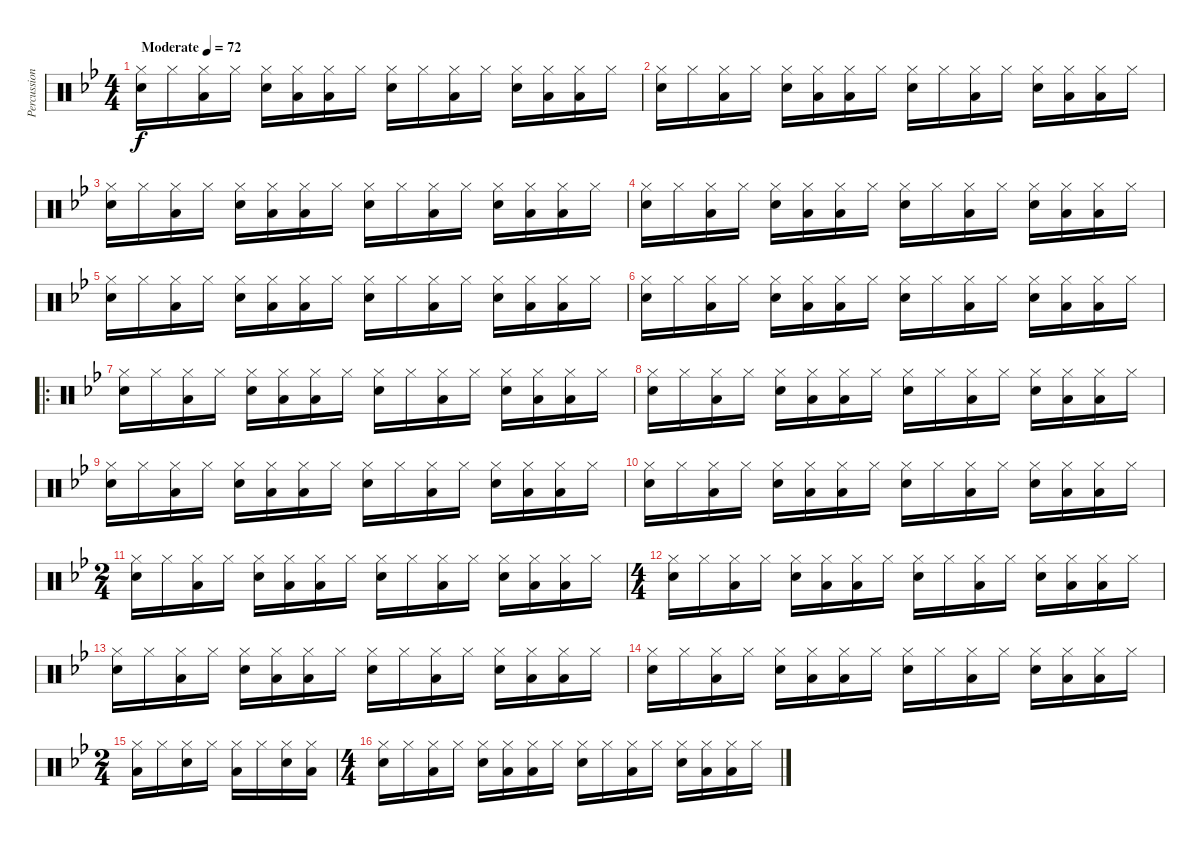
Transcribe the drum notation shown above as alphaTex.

\track ("Percussions" "Percussion") {instrument percussion}
\staff {score}
\articulation defaults
\ts (4 4)
\tempo (72 "Moderate")
\clef neutral
\ks bb
("Hi-Hat (closed)" "Snare (hit) 2").16{dy f} "Hi-Hat (closed)".16 ("Hi-Hat (closed)" "Low Tom (hit)").16 "Hi-Hat (closed)".16 ("Hi-Hat (closed)" "Snare (hit) 2").16 ("Hi-Hat (closed)" "Low Tom (hit)").16 ("Hi-Hat (closed)" "Low Tom (hit)").16 "Hi-Hat (closed)".16 ("Hi-Hat (closed)" "Snare (hit) 2").16 "Hi-Hat (closed)".16 ("Hi-Hat (closed)" "Low Tom (hit)").16 "Hi-Hat (closed)".16 ("Hi-Hat (closed)" "Snare (hit) 2").16 ("Hi-Hat (closed)" "Low Tom (hit)").16 ("Hi-Hat (closed)" "Low Tom (hit)").16 "Hi-Hat (closed)".16 |
("Hi-Hat (closed)" "Snare (hit) 2").16 "Hi-Hat (closed)".16 ("Hi-Hat (closed)" "Low Tom (hit)").16 "Hi-Hat (closed)".16 ("Hi-Hat (closed)" "Snare (hit) 2").16 ("Hi-Hat (closed)" "Low Tom (hit)").16 ("Hi-Hat (closed)" "Low Tom (hit)").16 "Hi-Hat (closed)".16 ("Hi-Hat (closed)" "Snare (hit) 2").16 "Hi-Hat (closed)".16 ("Hi-Hat (closed)" "Low Tom (hit)").16 "Hi-Hat (closed)".16 ("Hi-Hat (closed)" "Snare (hit) 2").16 ("Hi-Hat (closed)" "Low Tom (hit)").16 ("Hi-Hat (closed)" "Low Tom (hit)").16 "Hi-Hat (closed)".16 |
("Hi-Hat (closed)" "Snare (hit) 2").16 "Hi-Hat (closed)".16 ("Hi-Hat (closed)" "Low Tom (hit)").16 "Hi-Hat (closed)".16 ("Hi-Hat (closed)" "Snare (hit) 2").16 ("Hi-Hat (closed)" "Low Tom (hit)").16 ("Hi-Hat (closed)" "Low Tom (hit)").16 "Hi-Hat (closed)".16 ("Hi-Hat (closed)" "Snare (hit) 2").16 "Hi-Hat (closed)".16 ("Hi-Hat (closed)" "Low Tom (hit)").16 "Hi-Hat (closed)".16 ("Hi-Hat (closed)" "Snare (hit) 2").16 ("Hi-Hat (closed)" "Low Tom (hit)").16 ("Hi-Hat (closed)" "Low Tom (hit)").16 "Hi-Hat (closed)".16 |
("Hi-Hat (closed)" "Snare (hit) 2").16 "Hi-Hat (closed)".16 ("Hi-Hat (closed)" "Low Tom (hit)").16 "Hi-Hat (closed)".16 ("Hi-Hat (closed)" "Snare (hit) 2").16 ("Hi-Hat (closed)" "Low Tom (hit)").16 ("Hi-Hat (closed)" "Low Tom (hit)").16 "Hi-Hat (closed)".16 ("Hi-Hat (closed)" "Snare (hit) 2").16 "Hi-Hat (closed)".16 ("Hi-Hat (closed)" "Low Tom (hit)").16 "Hi-Hat (closed)".16 ("Hi-Hat (closed)" "Snare (hit) 2").16 ("Hi-Hat (closed)" "Low Tom (hit)").16 ("Hi-Hat (closed)" "Low Tom (hit)").16 "Hi-Hat (closed)".16 |
("Hi-Hat (closed)" "Snare (hit) 2").16 "Hi-Hat (closed)".16 ("Hi-Hat (closed)" "Low Tom (hit)").16 "Hi-Hat (closed)".16 ("Hi-Hat (closed)" "Snare (hit) 2").16 ("Hi-Hat (closed)" "Low Tom (hit)").16 ("Hi-Hat (closed)" "Low Tom (hit)").16 "Hi-Hat (closed)".16 ("Hi-Hat (closed)" "Snare (hit) 2").16 "Hi-Hat (closed)".16 ("Hi-Hat (closed)" "Low Tom (hit)").16 "Hi-Hat (closed)".16 ("Hi-Hat (closed)" "Snare (hit) 2").16 ("Hi-Hat (closed)" "Low Tom (hit)").16 ("Hi-Hat (closed)" "Low Tom (hit)").16 "Hi-Hat (closed)".16 |
("Hi-Hat (closed)" "Snare (hit) 2").16 "Hi-Hat (closed)".16 ("Hi-Hat (closed)" "Low Tom (hit)").16 "Hi-Hat (closed)".16 ("Hi-Hat (closed)" "Snare (hit) 2").16 ("Hi-Hat (closed)" "Low Tom (hit)").16 ("Hi-Hat (closed)" "Low Tom (hit)").16 "Hi-Hat (closed)".16 ("Hi-Hat (closed)" "Snare (hit) 2").16 "Hi-Hat (closed)".16 ("Hi-Hat (closed)" "Low Tom (hit)").16 "Hi-Hat (closed)".16 ("Hi-Hat (closed)" "Snare (hit) 2").16 ("Hi-Hat (closed)" "Low Tom (hit)").16 ("Hi-Hat (closed)" "Low Tom (hit)").16 "Hi-Hat (closed)".16 |
\ro
("Hi-Hat (closed)" "Snare (hit) 2").16 "Hi-Hat (closed)".16 ("Hi-Hat (closed)" "Low Tom (hit)").16 "Hi-Hat (closed)".16 ("Hi-Hat (closed)" "Snare (hit) 2").16 ("Hi-Hat (closed)" "Low Tom (hit)").16 ("Hi-Hat (closed)" "Low Tom (hit)").16 "Hi-Hat (closed)".16 ("Hi-Hat (closed)" "Snare (hit) 2").16 "Hi-Hat (closed)".16 ("Hi-Hat (closed)" "Low Tom (hit)").16 "Hi-Hat (closed)".16 ("Hi-Hat (closed)" "Snare (hit) 2").16 ("Hi-Hat (closed)" "Low Tom (hit)").16 ("Hi-Hat (closed)" "Low Tom (hit)").16 "Hi-Hat (closed)".16 |
("Hi-Hat (closed)" "Snare (hit) 2").16 "Hi-Hat (closed)".16 ("Hi-Hat (closed)" "Low Tom (hit)").16 "Hi-Hat (closed)".16 ("Hi-Hat (closed)" "Snare (hit) 2").16 ("Hi-Hat (closed)" "Low Tom (hit)").16 ("Hi-Hat (closed)" "Low Tom (hit)").16 "Hi-Hat (closed)".16 ("Hi-Hat (closed)" "Snare (hit) 2").16 "Hi-Hat (closed)".16 ("Hi-Hat (closed)" "Low Tom (hit)").16 "Hi-Hat (closed)".16 ("Hi-Hat (closed)" "Snare (hit) 2").16 ("Hi-Hat (closed)" "Low Tom (hit)").16 ("Hi-Hat (closed)" "Low Tom (hit)").16 "Hi-Hat (closed)".16 |
("Hi-Hat (closed)" "Snare (hit) 2").16 "Hi-Hat (closed)".16 ("Hi-Hat (closed)" "Low Tom (hit)").16 "Hi-Hat (closed)".16 ("Hi-Hat (closed)" "Snare (hit) 2").16 ("Hi-Hat (closed)" "Low Tom (hit)").16 ("Hi-Hat (closed)" "Low Tom (hit)").16 "Hi-Hat (closed)".16 ("Hi-Hat (closed)" "Snare (hit) 2").16 "Hi-Hat (closed)".16 ("Hi-Hat (closed)" "Low Tom (hit)").16 "Hi-Hat (closed)".16 ("Hi-Hat (closed)" "Snare (hit) 2").16 ("Hi-Hat (closed)" "Low Tom (hit)").16 ("Hi-Hat (closed)" "Low Tom (hit)").16 "Hi-Hat (closed)".16 |
("Hi-Hat (closed)" "Snare (hit) 2").16 "Hi-Hat (closed)".16 ("Hi-Hat (closed)" "Low Tom (hit)").16 "Hi-Hat (closed)".16 ("Hi-Hat (closed)" "Snare (hit) 2").16 ("Hi-Hat (closed)" "Low Tom (hit)").16 ("Hi-Hat (closed)" "Low Tom (hit)").16 "Hi-Hat (closed)".16 ("Hi-Hat (closed)" "Snare (hit) 2").16 "Hi-Hat (closed)".16 ("Hi-Hat (closed)" "Low Tom (hit)").16 "Hi-Hat (closed)".16 ("Hi-Hat (closed)" "Snare (hit) 2").16 ("Hi-Hat (closed)" "Low Tom (hit)").16 ("Hi-Hat (closed)" "Low Tom (hit)").16 "Hi-Hat (closed)".16 |
\ts (2 4)
("Hi-Hat (closed)" "Snare (hit) 2").16 "Hi-Hat (closed)".16 ("Hi-Hat (closed)" "Low Tom (hit)").16 "Hi-Hat (closed)".16 ("Hi-Hat (closed)" "Snare (hit) 2").16 ("Hi-Hat (closed)" "Low Tom (hit)").16 ("Hi-Hat (closed)" "Low Tom (hit)").16 "Hi-Hat (closed)".16 ("Hi-Hat (closed)" "Snare (hit) 2").16 "Hi-Hat (closed)".16 ("Hi-Hat (closed)" "Low Tom (hit)").16 "Hi-Hat (closed)".16 ("Hi-Hat (closed)" "Snare (hit) 2").16 ("Hi-Hat (closed)" "Low Tom (hit)").16 ("Hi-Hat (closed)" "Low Tom (hit)").16 "Hi-Hat (closed)".16 |
\ts (4 4)
("Hi-Hat (closed)" "Snare (hit) 2").16 "Hi-Hat (closed)".16 ("Hi-Hat (closed)" "Low Tom (hit)").16 "Hi-Hat (closed)".16 ("Hi-Hat (closed)" "Snare (hit) 2").16 ("Hi-Hat (closed)" "Low Tom (hit)").16 ("Hi-Hat (closed)" "Low Tom (hit)").16 "Hi-Hat (closed)".16 ("Hi-Hat (closed)" "Snare (hit) 2").16 "Hi-Hat (closed)".16 ("Hi-Hat (closed)" "Low Tom (hit)").16 "Hi-Hat (closed)".16 ("Hi-Hat (closed)" "Snare (hit) 2").16 ("Hi-Hat (closed)" "Low Tom (hit)").16 ("Hi-Hat (closed)" "Low Tom (hit)").16 "Hi-Hat (closed)".16 |
("Hi-Hat (closed)" "Snare (hit) 2").16 "Hi-Hat (closed)".16 ("Hi-Hat (closed)" "Low Tom (hit)").16 "Hi-Hat (closed)".16 ("Hi-Hat (closed)" "Snare (hit) 2").16 ("Hi-Hat (closed)" "Low Tom (hit)").16 ("Hi-Hat (closed)" "Low Tom (hit)").16 "Hi-Hat (closed)".16 ("Hi-Hat (closed)" "Snare (hit) 2").16 "Hi-Hat (closed)".16 ("Hi-Hat (closed)" "Low Tom (hit)").16 "Hi-Hat (closed)".16 ("Hi-Hat (closed)" "Snare (hit) 2").16 ("Hi-Hat (closed)" "Low Tom (hit)").16 ("Hi-Hat (closed)" "Low Tom (hit)").16 "Hi-Hat (closed)".16 |
("Hi-Hat (closed)" "Snare (hit) 2").16 "Hi-Hat (closed)".16 ("Hi-Hat (closed)" "Low Tom (hit)").16 "Hi-Hat (closed)".16 ("Hi-Hat (closed)" "Snare (hit) 2").16 ("Hi-Hat (closed)" "Low Tom (hit)").16 ("Hi-Hat (closed)" "Low Tom (hit)").16 "Hi-Hat (closed)".16 ("Hi-Hat (closed)" "Snare (hit) 2").16 "Hi-Hat (closed)".16 ("Hi-Hat (closed)" "Low Tom (hit)").16 "Hi-Hat (closed)".16 ("Hi-Hat (closed)" "Snare (hit) 2").16 ("Hi-Hat (closed)" "Low Tom (hit)").16 ("Hi-Hat (closed)" "Low Tom (hit)").16 "Hi-Hat (closed)".16 |
\ts (2 4)
("Hi-Hat (closed)" "Low Tom (hit)").16 "Hi-Hat (closed)".16 ("Hi-Hat (closed)" "Snare (hit) 2").16 "Hi-Hat (closed)".16 ("Hi-Hat (closed)" "Low Tom (hit)").16 "Hi-Hat (closed)".16 ("Hi-Hat (closed)" "Snare (hit) 2").16 ("Hi-Hat (closed)" "Low Tom (hit)").16 |
\ts (4 4)
("Hi-Hat (closed)" "Snare (hit) 2").16 "Hi-Hat (closed)".16 ("Hi-Hat (closed)" "Low Tom (hit)").16 "Hi-Hat (closed)".16 ("Hi-Hat (closed)" "Snare (hit) 2").16 ("Hi-Hat (closed)" "Low Tom (hit)").16 ("Hi-Hat (closed)" "Low Tom (hit)").16 "Hi-Hat (closed)".16 ("Hi-Hat (closed)" "Snare (hit) 2").16 "Hi-Hat (closed)".16 ("Hi-Hat (closed)" "Low Tom (hit)").16 "Hi-Hat (closed)".16 ("Hi-Hat (closed)" "Snare (hit) 2").16 ("Hi-Hat (closed)" "Low Tom (hit)").16 ("Hi-Hat (closed)" "Low Tom (hit)").16 "Hi-Hat (closed)".16
